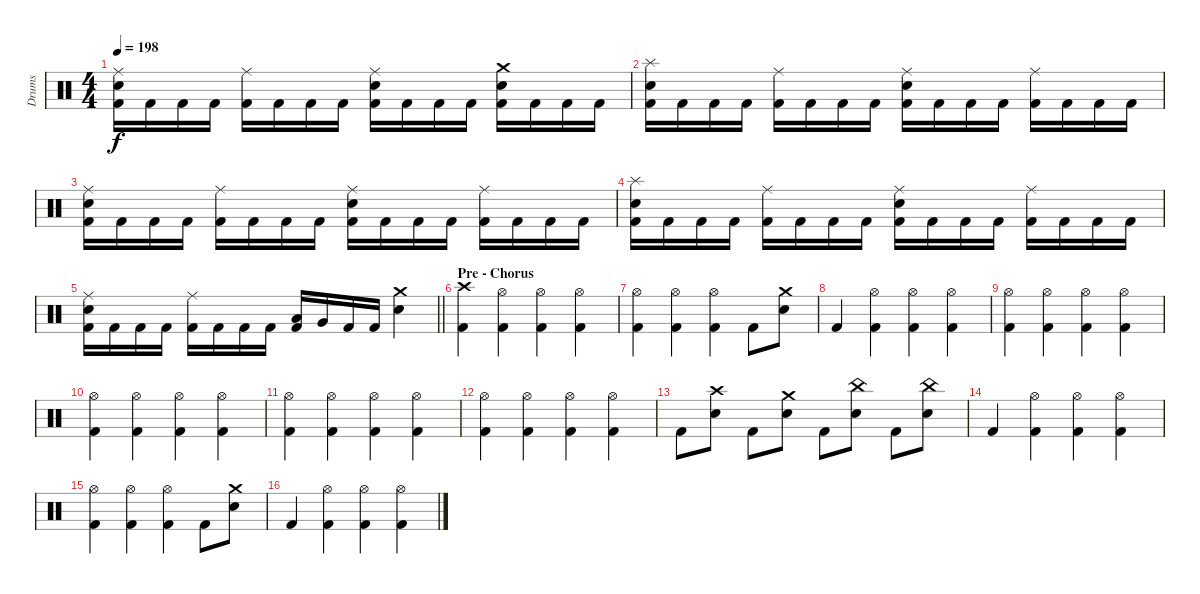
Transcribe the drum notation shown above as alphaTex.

\track ("Drums" "Drums") {instrument percussion}
\staff {score}
\articulation defaults
\ts (4 4)
\tempo 198
\clef neutral
\ks c
("Ride (middle)" "Electric Snare (hit)" "Kick (hit) 2").16{dy f} "Kick (hit) 2".16 "Kick (hit) 2".16 "Kick (hit) 2".16 ("Ride (middle)" "Kick (hit) 2").16 "Kick (hit) 2".16 "Kick (hit) 2".16 "Kick (hit) 2".16 ("Ride (middle)" "Electric Snare (hit)" "Kick (hit) 2").16 "Kick (hit) 2".16 "Kick (hit) 2".16 "Kick (hit) 2".16 ("Crash medium (hit)" "Electric Snare (hit)" "Kick (hit) 2").16 "Kick (hit) 2".16 "Kick (hit) 2".16 "Kick (hit) 2".16 |
("Splash (hit)" "Electric Snare (hit)" "Kick (hit) 2").16 "Kick (hit) 2".16 "Kick (hit) 2".16 "Kick (hit) 2".16 ("Ride (middle)" "Kick (hit) 2").16 "Kick (hit) 2".16 "Kick (hit) 2".16 "Kick (hit) 2".16 ("Ride (middle)" "Electric Snare (hit)" "Kick (hit) 2").16 "Kick (hit) 2".16 "Kick (hit) 2".16 "Kick (hit) 2".16 ("Ride (middle)" "Kick (hit) 2").16 "Kick (hit) 2".16 "Kick (hit) 2".16 "Kick (hit) 2".16 |
("Ride (middle)" "Electric Snare (hit)" "Kick (hit) 2").16 "Kick (hit) 2".16 "Kick (hit) 2".16 "Kick (hit) 2".16 ("Ride (middle)" "Kick (hit) 2").16 "Kick (hit) 2".16 "Kick (hit) 2".16 "Kick (hit) 2".16 ("Ride (middle)" "Electric Snare (hit)" "Kick (hit) 2").16 "Kick (hit) 2".16 "Kick (hit) 2".16 "Kick (hit) 2".16 ("Ride (middle)" "Kick (hit) 2").16 "Kick (hit) 2".16 "Kick (hit) 2".16 "Kick (hit) 2".16 |
("Splash (hit)" "Electric Snare (hit)" "Kick (hit) 2").16 "Kick (hit) 2".16 "Kick (hit) 2".16 "Kick (hit) 2".16 ("Ride (middle)" "Kick (hit) 2").16 "Kick (hit) 2".16 "Kick (hit) 2".16 "Kick (hit) 2".16 ("Ride (middle)" "Electric Snare (hit)" "Kick (hit) 2").16 "Kick (hit) 2".16 "Kick (hit) 2".16 "Kick (hit) 2".16 ("Ride (middle)" "Kick (hit) 2").16 "Kick (hit) 2".16 "Kick (hit) 2".16 "Kick (hit) 2".16 |
\barLineRight lightlight
("Ride (middle)" "Electric Snare (hit)" "Kick (hit) 2").16 "Kick (hit) 2".16 "Kick (hit) 2".16 "Kick (hit) 2".16 ("Ride (middle)" "Kick (hit) 2").16 "Kick (hit) 2".16 "Kick (hit) 2".16 "Kick (hit) 2".16 ("Low Tom (hit)" "Kick (hit) 2").16 "Very Low Tom (hit)".16 "Kick (hit) 2".16 "Kick (hit) 2".16 ("Crash medium (hit)" "Electric Snare (hit)").4 |
\section ("" "Pre - Chorus")
("Crash high (hit)" "Kick (hit) 2").4 ("Hi-Hat (open)" "Kick (hit) 2").4 ("Hi-Hat (open)" "Kick (hit) 2").4 ("Hi-Hat (open)" "Kick (hit) 2").4 |
("Hi-Hat (open)" "Kick (hit) 2").4 ("Hi-Hat (open)" "Kick (hit) 2").4 ("Hi-Hat (open)" "Kick (hit) 2").4 "Kick (hit) 2".8 ("Crash medium (hit)" "Electric Snare (hit)").8 |
"Kick (hit) 2".4 ("Hi-Hat (open)" "Kick (hit) 2").4 ("Hi-Hat (open)" "Kick (hit) 2").4 ("Hi-Hat (open)" "Kick (hit) 2").4 |
("Hi-Hat (open)" "Kick (hit) 2").4 ("Hi-Hat (open)" "Kick (hit) 2").4 ("Hi-Hat (open)" "Kick (hit) 2").4 ("Hi-Hat (open)" "Kick (hit) 2").4 |
("Hi-Hat (open)" "Kick (hit) 2").4 ("Hi-Hat (open)" "Kick (hit) 2").4 ("Hi-Hat (open)" "Kick (hit) 2").4 ("Hi-Hat (open)" "Kick (hit) 2").4 |
("Hi-Hat (open)" "Kick (hit) 2").4 ("Hi-Hat (open)" "Kick (hit) 2").4 ("Hi-Hat (open)" "Kick (hit) 2").4 ("Hi-Hat (open)" "Kick (hit) 2").4 |
("Hi-Hat (open)" "Kick (hit) 2").4 ("Hi-Hat (open)" "Kick (hit) 2").4 ("Hi-Hat (open)" "Kick (hit) 2").4 ("Hi-Hat (open)" "Kick (hit) 2").4 |
"Kick (hit) 2".8 ("Crash high (hit)" "Electric Snare (hit)").8 "Kick (hit) 2".8 ("Crash medium (hit)" "Electric Snare (hit)").8 "Kick (hit) 2".8 ("China (hit)" "Electric Snare (hit)").8 "Kick (hit) 2".8 ("China (hit)" "Electric Snare (hit)").8 |
"Kick (hit) 2".4 ("Hi-Hat (open)" "Kick (hit) 2").4 ("Hi-Hat (open)" "Kick (hit) 2").4 ("Hi-Hat (open)" "Kick (hit) 2").4 |
("Hi-Hat (open)" "Kick (hit) 2").4 ("Hi-Hat (open)" "Kick (hit) 2").4 ("Hi-Hat (open)" "Kick (hit) 2").4 "Kick (hit) 2".8 ("Crash medium (hit)" "Electric Snare (hit)").8 |
"Kick (hit) 2".4 ("Hi-Hat (open)" "Kick (hit) 2").4 ("Hi-Hat (open)" "Kick (hit) 2").4 ("Hi-Hat (open)" "Kick (hit) 2").4
